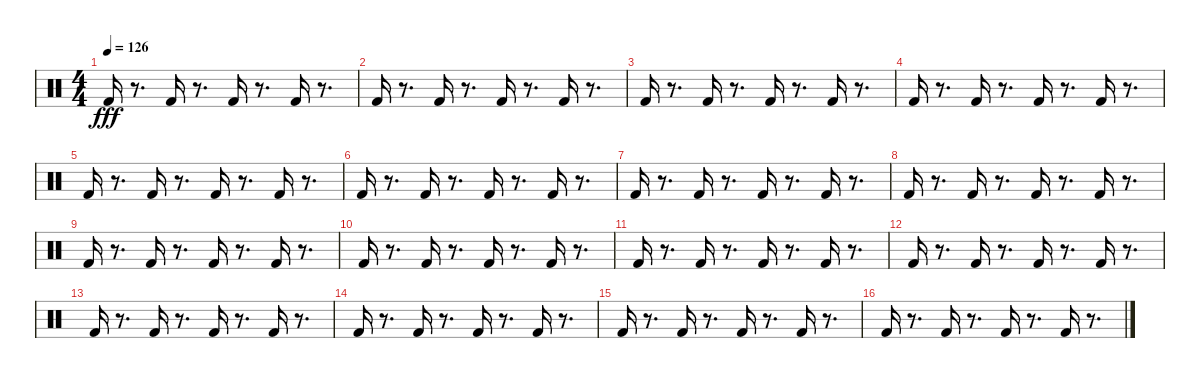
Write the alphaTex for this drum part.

\track "" {instrument percussion}
\staff {score}
\articulation defaults
\ts (4 4)
\tempo 126
\clef neutral
\ks c "Kick (hit) 2".16{dy fff}
r.8{d} "Kick (hit) 2".16 r.8{d} "Kick (hit) 2".16 r.8{d} "Kick (hit) 2".16 r.8{d} |
"Kick (hit) 2".16 r.8{d} "Kick (hit) 2".16 r.8{d} "Kick (hit) 2".16 r.8{d} "Kick (hit) 2".16 r.8{d} |
"Kick (hit) 2".16 r.8{d} "Kick (hit) 2".16 r.8{d} "Kick (hit) 2".16 r.8{d} "Kick (hit) 2".16 r.8{d} |
"Kick (hit) 2".16 r.8{d} "Kick (hit) 2".16 r.8{d} "Kick (hit) 2".16 r.8{d} "Kick (hit) 2".16 r.8{d} |
"Kick (hit) 2".16 r.8{d} "Kick (hit) 2".16 r.8{d} "Kick (hit) 2".16 r.8{d} "Kick (hit) 2".16 r.8{d} |
"Kick (hit) 2".16 r.8{d} "Kick (hit) 2".16 r.8{d} "Kick (hit) 2".16 r.8{d} "Kick (hit) 2".16 r.8{d} |
"Kick (hit) 2".16 r.8{d} "Kick (hit) 2".16 r.8{d} "Kick (hit) 2".16 r.8{d} "Kick (hit) 2".16 r.8{d} |
"Kick (hit) 2".16 r.8{d} "Kick (hit) 2".16 r.8{d} "Kick (hit) 2".16 r.8{d} "Kick (hit) 2".16 r.8{d} |
"Kick (hit) 2".16 r.8{d} "Kick (hit) 2".16 r.8{d} "Kick (hit) 2".16 r.8{d} "Kick (hit) 2".16 r.8{d} |
"Kick (hit) 2".16 r.8{d} "Kick (hit) 2".16 r.8{d} "Kick (hit) 2".16 r.8{d} "Kick (hit) 2".16 r.8{d} |
"Kick (hit) 2".16 r.8{d} "Kick (hit) 2".16 r.8{d} "Kick (hit) 2".16 r.8{d} "Kick (hit) 2".16 r.8{d} |
"Kick (hit) 2".16 r.8{d} "Kick (hit) 2".16 r.8{d} "Kick (hit) 2".16 r.8{d} "Kick (hit) 2".16 r.8{d} |
"Kick (hit) 2".16 r.8{d} "Kick (hit) 2".16 r.8{d} "Kick (hit) 2".16 r.8{d} "Kick (hit) 2".16 r.8{d} |
"Kick (hit) 2".16 r.8{d} "Kick (hit) 2".16 r.8{d} "Kick (hit) 2".16 r.8{d} "Kick (hit) 2".16 r.8{d} |
"Kick (hit) 2".16 r.8{d} "Kick (hit) 2".16 r.8{d} "Kick (hit) 2".16 r.8{d} "Kick (hit) 2".16 r.8{d} |
"Kick (hit) 2".16 r.8{d} "Kick (hit) 2".16 r.8{d} "Kick (hit) 2".16 r.8{d} "Kick (hit) 2".16 r.8{d}
